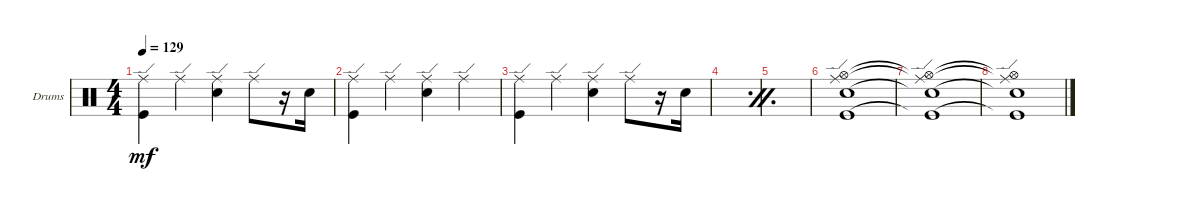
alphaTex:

\bracketExtendMode groupsimilarinstruments
\firstSystemTrackNameOrientation horizontal
\otherSystemsTrackNameOrientation horizontal
\track ("Drumkit" "Drums") {instrument percussion}
\staff {score}
\articulation defaults
\ts (4 4)
\tempo 129
\clef neutral
\ks c
("Ride (edge)" "Kick (hit)").4{dy mf} "Ride (edge)".4 ("Ride (edge)" "Snare (hit) 2").4 "Ride (edge)".8 r.16 "Snare (hit) 2".16 |
("Kick (hit)" "Ride (edge)").4 "Ride (edge)".4 ("Ride (edge)" "Snare (hit) 2").4 "Ride (edge)".4 |
("Ride (edge)" "Kick (hit)").4 "Ride (edge)".4 ("Ride (edge)" "Snare (hit) 2").4 "Ride (edge)".8 r.16 "Snare (hit) 2".16 |
\simile firstofdouble
|
\simile secondofdouble
|
\simile none
("Kick (hit)" "Snare (hit) 2" "Ride (edge)" "Hi-Hat (open)").1 |
("Kick (hit)"{t} "Snare (hit) 2"{t} "Ride (edge)"{t} "Hi-Hat (open)"{t}).1 |
("Kick (hit)"{t} "Snare (hit) 2"{t} "Ride (edge)"{t} "Hi-Hat (open)"{t}).1
